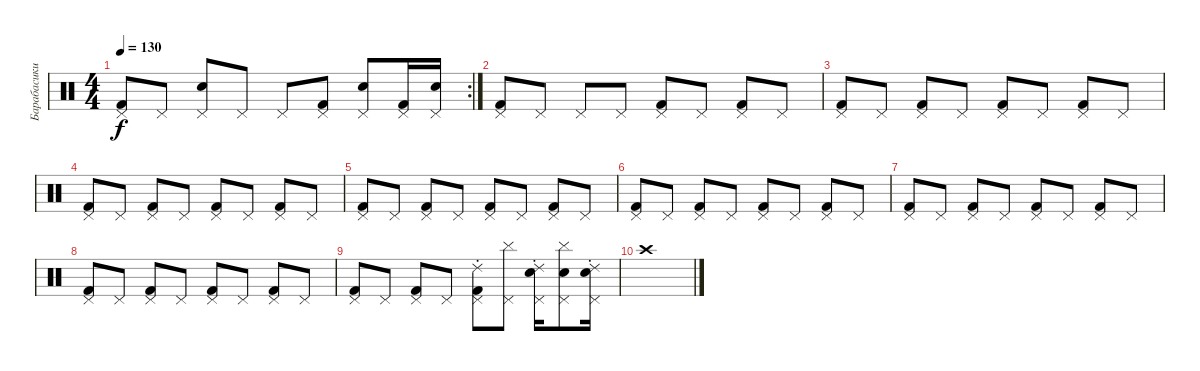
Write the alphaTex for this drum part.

\track ("Барабасики" "Барабасики") {instrument percussion}
\staff {score}
\articulation defaults
\rc 2
\ts (4 4)
\tempo 130
\clef neutral
\ks c
("Pedal Hi-Hat (hit)" "Kick (hit) 2").8{dy f} "Pedal Hi-Hat (hit)".8 ("Pedal Hi-Hat (hit)" "Electric Snare (hit)").8 "Pedal Hi-Hat (hit)".8 "Pedal Hi-Hat (hit)".8 ("Pedal Hi-Hat (hit)" "Kick (hit) 2").8 ("Pedal Hi-Hat (hit)" "Electric Snare (hit)").8 ("Pedal Hi-Hat (hit)" "Kick (hit) 2").16 ("Pedal Hi-Hat (hit)" "Electric Snare (hit)").16 |
("Pedal Hi-Hat (hit)" "Kick (hit) 2").8 "Pedal Hi-Hat (hit)".8 "Pedal Hi-Hat (hit)".8 "Pedal Hi-Hat (hit)".8 ("Pedal Hi-Hat (hit)" "Kick (hit) 2").8 "Pedal Hi-Hat (hit)".8 ("Pedal Hi-Hat (hit)" "Kick (hit) 2").8 "Pedal Hi-Hat (hit)".8 |
("Pedal Hi-Hat (hit)" "Kick (hit) 2").8 "Pedal Hi-Hat (hit)".8 ("Pedal Hi-Hat (hit)" "Kick (hit) 2").8 "Pedal Hi-Hat (hit)".8 ("Pedal Hi-Hat (hit)" "Kick (hit) 2").8 "Pedal Hi-Hat (hit)".8 ("Pedal Hi-Hat (hit)" "Kick (hit) 2").8 "Pedal Hi-Hat (hit)".8 |
("Pedal Hi-Hat (hit)" "Kick (hit) 2").8 "Pedal Hi-Hat (hit)".8 ("Pedal Hi-Hat (hit)" "Kick (hit) 2").8 "Pedal Hi-Hat (hit)".8 ("Pedal Hi-Hat (hit)" "Kick (hit) 2").8 "Pedal Hi-Hat (hit)".8 ("Pedal Hi-Hat (hit)" "Kick (hit) 2").8 "Pedal Hi-Hat (hit)".8 |
("Pedal Hi-Hat (hit)" "Kick (hit) 2").8 "Pedal Hi-Hat (hit)".8 ("Pedal Hi-Hat (hit)" "Kick (hit) 2").8 "Pedal Hi-Hat (hit)".8 ("Pedal Hi-Hat (hit)" "Kick (hit) 2").8 "Pedal Hi-Hat (hit)".8 ("Pedal Hi-Hat (hit)" "Kick (hit) 2").8 "Pedal Hi-Hat (hit)".8 |
("Pedal Hi-Hat (hit)" "Kick (hit) 2").8 "Pedal Hi-Hat (hit)".8 ("Pedal Hi-Hat (hit)" "Kick (hit) 2").8 "Pedal Hi-Hat (hit)".8 ("Pedal Hi-Hat (hit)" "Kick (hit) 2").8 "Pedal Hi-Hat (hit)".8 ("Pedal Hi-Hat (hit)" "Kick (hit) 2").8 "Pedal Hi-Hat (hit)".8 |
("Pedal Hi-Hat (hit)" "Kick (hit) 2").8 "Pedal Hi-Hat (hit)".8 ("Pedal Hi-Hat (hit)" "Kick (hit) 2").8 "Pedal Hi-Hat (hit)".8 ("Pedal Hi-Hat (hit)" "Kick (hit) 2").8 "Pedal Hi-Hat (hit)".8 ("Pedal Hi-Hat (hit)" "Kick (hit) 2").8 "Pedal Hi-Hat (hit)".8 |
("Pedal Hi-Hat (hit)" "Kick (hit) 2").8 "Pedal Hi-Hat (hit)".8 ("Pedal Hi-Hat (hit)" "Kick (hit) 2").8 "Pedal Hi-Hat (hit)".8 ("Pedal Hi-Hat (hit)" "Kick (hit) 2").8 "Pedal Hi-Hat (hit)".8 ("Pedal Hi-Hat (hit)" "Kick (hit) 2").8 "Pedal Hi-Hat (hit)".8 |
("Pedal Hi-Hat (hit)" "Kick (hit) 2").8 "Pedal Hi-Hat (hit)".8 ("Pedal Hi-Hat (hit)" "Kick (hit) 2").8 "Pedal Hi-Hat (hit)".8 ("Pedal Hi-Hat (hit)" "Kick (hit) 2" "Ride (choke) 2").8 ("Pedal Hi-Hat (hit)" "Cymbal (hit)").8 ("Pedal Hi-Hat (hit)" "Electric Snare (hit)" "Ride (choke) 2").16 ("Pedal Hi-Hat (hit)" "Electric Snare (hit)" "Cymbal (hit)").8 ("Pedal Hi-Hat (hit)" "Electric Snare (hit)" "Ride (choke) 2").16 |
"Crash high (hit)".1
